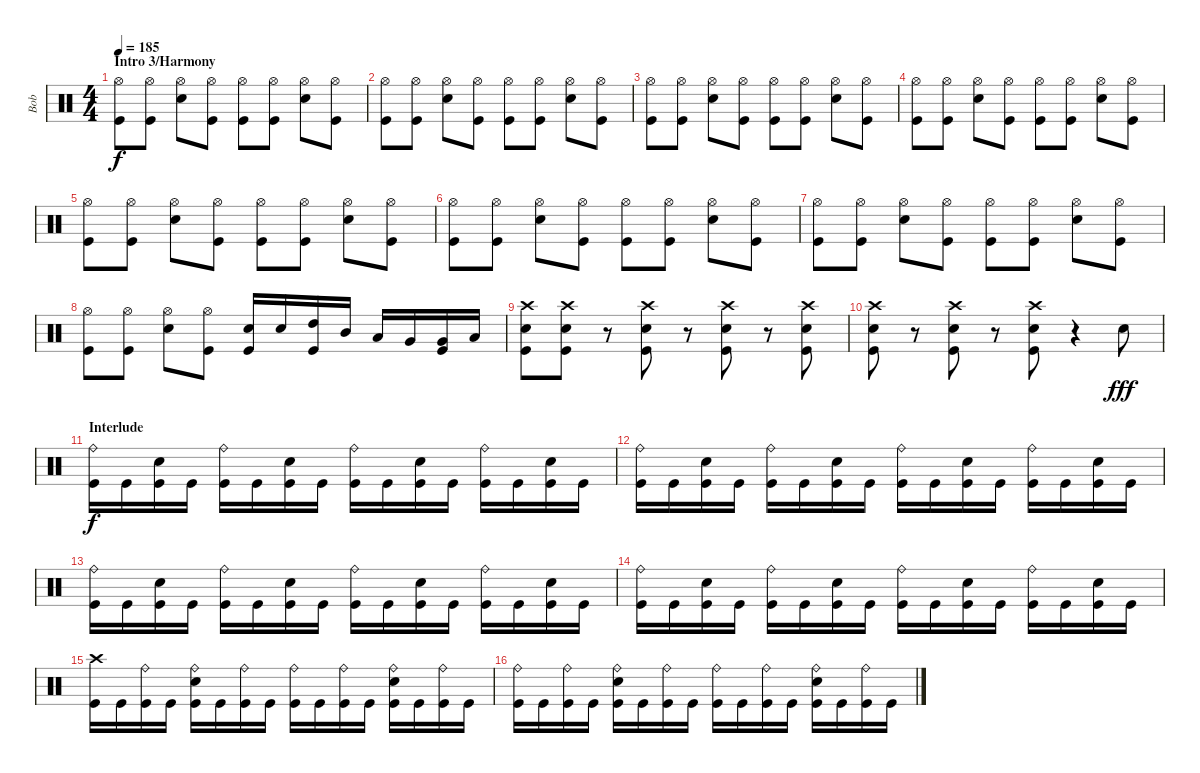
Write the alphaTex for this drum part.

\track ("Bob" "Bob") {instrument percussion}
\staff {score}
\articulation defaults
\ts (4 4)
\section ("" "Intro 3/Harmony")
\tempo 185
\clef neutral
\ks c
("Hi-Hat (open)" "Kick (hit)").8{dy f} ("Hi-Hat (open)" "Kick (hit)").8 ("Hi-Hat (open)" "Snare (hit) 2").8 ("Hi-Hat (open)" "Kick (hit)").8 ("Hi-Hat (open)" "Kick (hit)").8 ("Hi-Hat (open)" "Kick (hit)").8 ("Hi-Hat (open)" "Snare (hit) 2").8 ("Hi-Hat (open)" "Kick (hit)").8 |
("Hi-Hat (open)" "Kick (hit)").8 ("Hi-Hat (open)" "Kick (hit)").8 ("Hi-Hat (open)" "Snare (hit) 2").8 ("Hi-Hat (open)" "Kick (hit)").8 ("Hi-Hat (open)" "Kick (hit)").8 ("Hi-Hat (open)" "Kick (hit)").8 ("Hi-Hat (open)" "Snare (hit) 2").8 ("Hi-Hat (open)" "Kick (hit)").8 |
("Hi-Hat (open)" "Kick (hit)").8 ("Hi-Hat (open)" "Kick (hit)").8 ("Hi-Hat (open)" "Snare (hit) 2").8 ("Hi-Hat (open)" "Kick (hit)").8 ("Hi-Hat (open)" "Kick (hit)").8 ("Hi-Hat (open)" "Kick (hit)").8 ("Hi-Hat (open)" "Snare (hit) 2").8 ("Hi-Hat (open)" "Kick (hit)").8 |
("Hi-Hat (open)" "Kick (hit)").8 ("Hi-Hat (open)" "Kick (hit)").8 ("Hi-Hat (open)" "Snare (hit) 2").8 ("Hi-Hat (open)" "Kick (hit)").8 ("Hi-Hat (open)" "Kick (hit)").8 ("Hi-Hat (open)" "Kick (hit)").8 ("Hi-Hat (open)" "Snare (hit) 2").8 ("Hi-Hat (open)" "Kick (hit)").8 |
("Hi-Hat (open)" "Kick (hit)").8 ("Hi-Hat (open)" "Kick (hit)").8 ("Hi-Hat (open)" "Snare (hit) 2").8 ("Hi-Hat (open)" "Kick (hit)").8 ("Hi-Hat (open)" "Kick (hit)").8 ("Hi-Hat (open)" "Kick (hit)").8 ("Hi-Hat (open)" "Snare (hit) 2").8 ("Hi-Hat (open)" "Kick (hit)").8 |
("Hi-Hat (open)" "Kick (hit)").8 ("Hi-Hat (open)" "Kick (hit)").8 ("Hi-Hat (open)" "Snare (hit) 2").8 ("Hi-Hat (open)" "Kick (hit)").8 ("Hi-Hat (open)" "Kick (hit)").8 ("Hi-Hat (open)" "Kick (hit)").8 ("Hi-Hat (open)" "Snare (hit) 2").8 ("Hi-Hat (open)" "Kick (hit)").8 |
("Hi-Hat (open)" "Kick (hit)").8 ("Hi-Hat (open)" "Kick (hit)").8 ("Hi-Hat (open)" "Snare (hit) 2").8 ("Hi-Hat (open)" "Kick (hit)").8 ("Hi-Hat (open)" "Kick (hit)").8 ("Hi-Hat (open)" "Kick (hit)").8 ("Hi-Hat (open)" "Snare (hit) 2").8 ("Hi-Hat (open)" "Kick (hit)").8 |
("Hi-Hat (open)" "Kick (hit)").8 ("Hi-Hat (open)" "Kick (hit)").8 ("Hi-Hat (open)" "Snare (hit) 2").8 ("Hi-Hat (open)" "Kick (hit)").8 ("Snare (hit) 2" "Kick (hit)").16 "Snare (hit) 2".16 ("High Tom (hit)" "Kick (hit)").16 "Mid Tom (hit)".16 "Low Tom (hit)".16 "Very Low Tom (hit)".16 ("Very Low Tom (hit)" "Kick (hit)").16 "Low Floor Tom (hit)".16 |
("Crash high (hit)" "Snare (hit) 2" "Kick (hit)").8 ("Crash high (hit)" "Snare (hit) 2" "Kick (hit)").8 r.8 ("Crash high (hit)" "Snare (hit) 2" "Kick (hit)").8 r.8 ("Crash high (hit)" "Snare (hit) 2" "Kick (hit)").8 r.8 ("Crash high (hit)" "Snare (hit) 2" "Kick (hit)").8 |
("Crash high (hit)" "Snare (hit) 2" "Kick (hit)").8 r.8 ("Crash high (hit)" "Snare (hit) 2" "Kick (hit)").8 r.8 ("Crash high (hit)" "Snare (hit) 2" "Kick (hit)").8 r.4 "Snare (hit) 2".8{txt " " dy fff} |
\section ("" "Interlude")
("Ride (bell)" "Kick (hit)").16{dy f} "Kick (hit)".16 ("Snare (hit) 2" "Kick (hit)").16 "Kick (hit)".16 ("Ride (bell)" "Kick (hit)").16 "Kick (hit)".16 ("Snare (hit) 2" "Kick (hit)").16 "Kick (hit)".16 ("Ride (bell)" "Kick (hit)").16 "Kick (hit)".16 ("Snare (hit) 2" "Kick (hit)").16 "Kick (hit)".16 ("Ride (bell)" "Kick (hit)").16 "Kick (hit)".16 ("Snare (hit) 2" "Kick (hit)").16 "Kick (hit)".16 |
("Ride (bell)" "Kick (hit)").16 "Kick (hit)".16 ("Snare (hit) 2" "Kick (hit)").16 "Kick (hit)".16 ("Ride (bell)" "Kick (hit)").16 "Kick (hit)".16 ("Snare (hit) 2" "Kick (hit)").16 "Kick (hit)".16 ("Ride (bell)" "Kick (hit)").16 "Kick (hit)".16 ("Snare (hit) 2" "Kick (hit)").16 "Kick (hit)".16 ("Ride (bell)" "Kick (hit)").16 "Kick (hit)".16 ("Snare (hit) 2" "Kick (hit)").16 "Kick (hit)".16 |
("Ride (bell)" "Kick (hit)").16 "Kick (hit)".16 ("Snare (hit) 2" "Kick (hit)").16 "Kick (hit)".16 ("Ride (bell)" "Kick (hit)").16 "Kick (hit)".16 ("Snare (hit) 2" "Kick (hit)").16 "Kick (hit)".16 ("Ride (bell)" "Kick (hit)").16 "Kick (hit)".16 ("Snare (hit) 2" "Kick (hit)").16 "Kick (hit)".16 ("Ride (bell)" "Kick (hit)").16 "Kick (hit)".16 ("Snare (hit) 2" "Kick (hit)").16 "Kick (hit)".16 |
("Ride (bell)" "Kick (hit)").16 "Kick (hit)".16 ("Snare (hit) 2" "Kick (hit)").16 "Kick (hit)".16 ("Ride (bell)" "Kick (hit)").16 "Kick (hit)".16 ("Snare (hit) 2" "Kick (hit)").16 "Kick (hit)".16 ("Ride (bell)" "Kick (hit)").16 "Kick (hit)".16 ("Snare (hit) 2" "Kick (hit)").16 "Kick (hit)".16 ("Ride (bell)" "Kick (hit)").16 "Kick (hit)".16 ("Snare (hit) 2" "Kick (hit)").16 "Kick (hit)".16 |
("Crash high (hit)" "Kick (hit)").16 "Kick (hit)".16 ("Ride (bell)" "Kick (hit)").16 "Kick (hit)".16 ("Ride (bell)" "Snare (hit) 2" "Kick (hit)").16 "Kick (hit)".16 ("Ride (bell)" "Kick (hit)").16 "Kick (hit)".16 ("Ride (bell)" "Kick (hit)").16 "Kick (hit)".16 ("Ride (bell)" "Kick (hit)").16 "Kick (hit)".16 ("Ride (bell)" "Snare (hit) 2" "Kick (hit)").16 "Kick (hit)".16 ("Ride (bell)" "Kick (hit)").16 "Kick (hit)".16 |
("Ride (bell)" "Kick (hit)").16 "Kick (hit)".16 ("Ride (bell)" "Kick (hit)").16 "Kick (hit)".16 ("Ride (bell)" "Snare (hit) 2" "Kick (hit)").16 "Kick (hit)".16 ("Ride (bell)" "Kick (hit)").16 "Kick (hit)".16 ("Ride (bell)" "Kick (hit)").16 "Kick (hit)".16 ("Ride (bell)" "Kick (hit)").16 "Kick (hit)".16 ("Ride (bell)" "Snare (hit) 2" "Kick (hit)").16 "Kick (hit)".16 ("Ride (bell)" "Kick (hit)").16 "Kick (hit)".16
